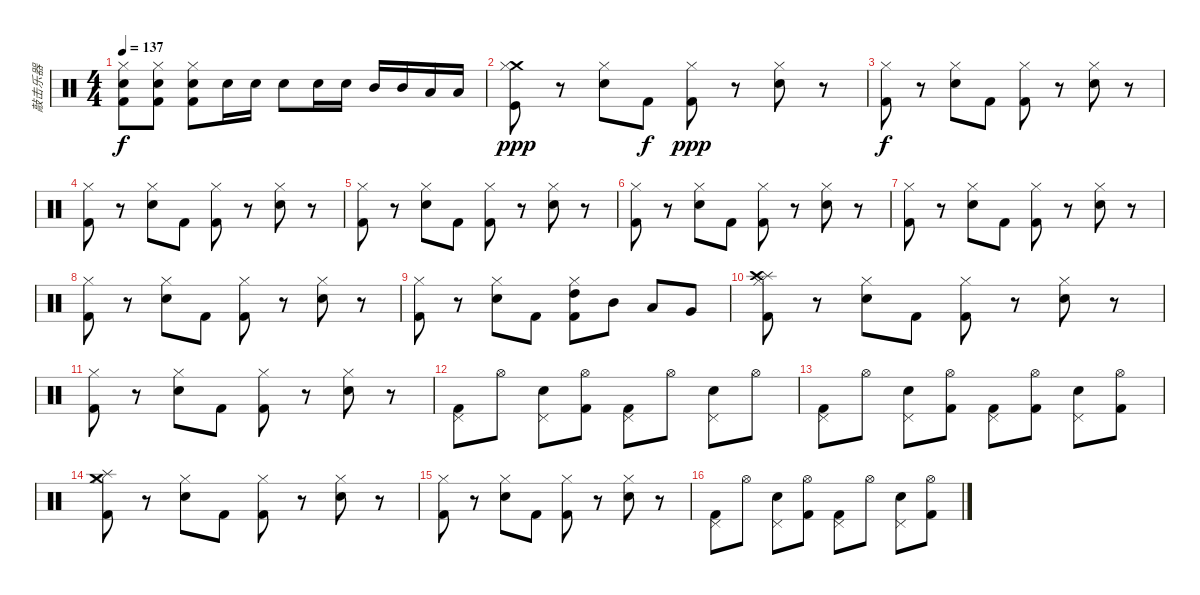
\track ("敲击乐器" "敲击乐器") {instrument percussion}
\staff {score}
\articulation defaults
\ts (4 4)
\tempo 137
\clef neutral
\ks c
("Hi-Hat (closed)" "Snare (hit) 2" "Kick (hit) 2").8{dy f} ("Hi-Hat (closed)" "Snare (hit) 2" "Kick (hit) 2").8 ("Hi-Hat (closed)" "Snare (hit) 2" "Kick (hit) 2").8 "Snare (hit) 2".16 "Snare (hit) 2".16 "Snare (hit) 2".8 "Snare (hit) 2".16 "Snare (hit) 2".16 "Mid Tom (hit)".16 "Mid Tom (hit)".16 "Low Tom (hit)".16 "Low Tom (hit)".16 |
("Crash medium (hit)" "Kick (hit)" "Hi-Hat (closed)").8{dy ppp} r.8 ("Snare (hit) 2" "Hi-Hat (closed)").8 "Kick (hit) 2".8{dy f} ("Kick (hit) 2" "Hi-Hat (closed)").8{dy ppp} r.8 ("Snare (hit) 2" "Hi-Hat (closed)").8 r.8 |
("Kick (hit) 2" "Hi-Hat (closed)").8{dy f} r.8 ("Snare (hit) 2" "Hi-Hat (closed)").8 "Kick (hit) 2".8 ("Kick (hit) 2" "Hi-Hat (closed)").8 r.8 ("Snare (hit) 2" "Hi-Hat (closed)").8 r.8 |
("Kick (hit) 2" "Hi-Hat (closed)").8 r.8 ("Snare (hit) 2" "Hi-Hat (closed)").8 "Kick (hit) 2".8 ("Kick (hit) 2" "Hi-Hat (closed)").8 r.8 ("Snare (hit) 2" "Hi-Hat (closed)").8 r.8 |
("Kick (hit) 2" "Hi-Hat (closed)").8 r.8 ("Snare (hit) 2" "Hi-Hat (closed)").8 "Kick (hit) 2".8 ("Kick (hit) 2" "Hi-Hat (closed)").8 r.8 ("Snare (hit) 2" "Hi-Hat (closed)").8 r.8 |
("Kick (hit) 2" "Hi-Hat (closed)").8 r.8 ("Snare (hit) 2" "Hi-Hat (closed)").8 "Kick (hit) 2".8 ("Kick (hit) 2" "Hi-Hat (closed)").8 r.8 ("Snare (hit) 2" "Hi-Hat (closed)").8 r.8 |
("Kick (hit) 2" "Hi-Hat (closed)").8 r.8 ("Snare (hit) 2" "Hi-Hat (closed)").8 "Kick (hit) 2".8 ("Kick (hit) 2" "Hi-Hat (closed)").8 r.8 ("Snare (hit) 2" "Hi-Hat (closed)").8 r.8 |
("Kick (hit) 2" "Hi-Hat (closed)").8 r.8 ("Snare (hit) 2" "Hi-Hat (closed)").8 "Kick (hit) 2".8 ("Kick (hit) 2" "Hi-Hat (closed)").8 r.8 ("Snare (hit) 2" "Hi-Hat (closed)").8 r.8 |
("Kick (hit) 2" "Hi-Hat (closed)").8 r.8 ("Snare (hit) 2" "Hi-Hat (closed)").8 "Kick (hit) 2".8 ("High Tom (hit)" "Kick (hit) 2" "Hi-Hat (closed)").8 "Mid Tom (hit)".8 "Low Tom (hit)".8 "Very Low Tom (hit)".8 |
("Splash (hit)" "Crash high (hit)" "Kick (hit) 2" "Hi-Hat (closed)").8 r.8 ("Snare (hit) 2" "Hi-Hat (closed)").8 "Kick (hit) 2".8 ("Kick (hit) 2" "Hi-Hat (closed)").8 r.8 ("Snare (hit) 2" "Hi-Hat (closed)").8 r.8 |
("Kick (hit) 2" "Hi-Hat (closed)").8 r.8 ("Snare (hit) 2" "Hi-Hat (closed)").8 "Kick (hit) 2".8 ("Kick (hit) 2" "Hi-Hat (closed)").8 r.8 ("Snare (hit) 2" "Hi-Hat (closed)").8 r.8 |
("Kick (hit) 2" "Pedal Hi-Hat (hit)").8 "Hi-Hat (open)".8 ("Snare (hit) 2" "Pedal Hi-Hat (hit)").8 ("Kick (hit) 2" "Hi-Hat (open)").8 ("Kick (hit) 2" "Pedal Hi-Hat (hit)").8 "Hi-Hat (open)".8 ("Snare (hit) 2" "Pedal Hi-Hat (hit)").8 "Hi-Hat (open)".8 |
("Kick (hit) 2" "Pedal Hi-Hat (hit)").8 "Hi-Hat (open)".8 ("Snare (hit) 2" "Pedal Hi-Hat (hit)").8 ("Kick (hit) 2" "Hi-Hat (open)").8 ("Kick (hit) 2" "Pedal Hi-Hat (hit)").8 ("Kick (hit) 2" "Hi-Hat (open)").8 ("Snare (hit) 2" "Pedal Hi-Hat (hit)").8 ("Kick (hit) 2" "Hi-Hat (open)").8 |
("Crash medium (hit)" "Splash (hit)" "Kick (hit) 2" "Hi-Hat (closed)").8 r.8 ("Snare (hit) 2" "Hi-Hat (closed)").8 "Kick (hit) 2".8 ("Kick (hit) 2" "Hi-Hat (closed)").8 r.8 ("Snare (hit) 2" "Hi-Hat (closed)").8 r.8 |
("Kick (hit) 2" "Hi-Hat (closed)").8 r.8 ("Snare (hit) 2" "Hi-Hat (closed)").8 "Kick (hit) 2".8 ("Kick (hit) 2" "Hi-Hat (closed)").8 r.8 ("Snare (hit) 2" "Hi-Hat (closed)").8 r.8 |
("Kick (hit) 2" "Pedal Hi-Hat (hit)").8 "Hi-Hat (open)".8 ("Snare (hit) 2" "Pedal Hi-Hat (hit)").8 ("Kick (hit) 2" "Hi-Hat (open)").8 ("Kick (hit) 2" "Pedal Hi-Hat (hit)").8 "Hi-Hat (open)".8 ("Snare (hit) 2" "Pedal Hi-Hat (hit)").8 ("Kick (hit) 2" "Hi-Hat (open)").8
